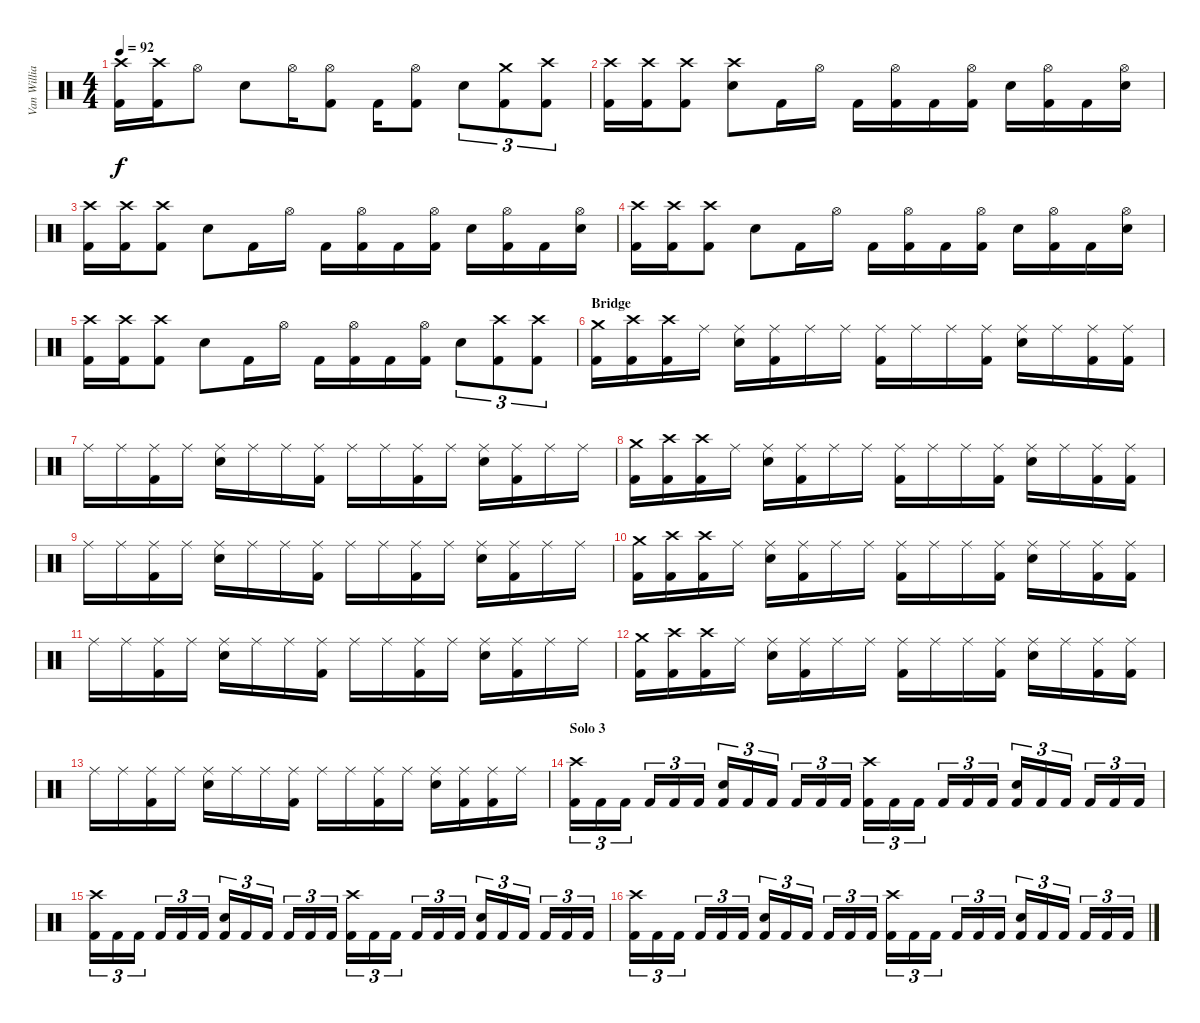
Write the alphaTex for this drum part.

\track ("Van Williams" "Van Willia") {instrument percussion}
\staff {score}
\articulation defaults
\ts (4 4)
\tempo 92
\clef neutral
\ks c
("Crash high (hit)" "Kick (hit) 2").16{dy f} ("Crash high (hit)" "Kick (hit) 2").16 "Hi-Hat (open)".8 "Electric Snare (hit)".8 "Hi-Hat (open)".16 ("Hi-Hat (open)" "Kick (hit) 2").8 "Kick (hit) 2".16 ("Hi-Hat (open)" "Kick (hit) 2").8 "Electric Snare (hit)".8{tu (3 2)} ("Crash medium (hit)" "Kick (hit) 2").8{tu (3 2)} ("Crash high (hit)" "Kick (hit) 2").8{tu (3 2)} |
("Crash high (hit)" "Kick (hit) 2").16 ("Crash high (hit)" "Kick (hit) 2").16 ("Crash high (hit)" "Kick (hit) 2").8 ("Crash high (hit)" "Electric Snare (hit)").8 "Kick (hit) 2".16 "Hi-Hat (open)".16 "Kick (hit) 2".16 ("Hi-Hat (open)" "Kick (hit) 2").16 "Kick (hit) 2".16 ("Hi-Hat (open)" "Kick (hit) 2").16 "Electric Snare (hit)".16 ("Hi-Hat (open)" "Kick (hit) 2").16 "Kick (hit) 2".16 ("Hi-Hat (open)" "Electric Snare (hit)").16 |
("Crash high (hit)" "Kick (hit) 2").16 ("Crash high (hit)" "Kick (hit) 2").16 ("Crash high (hit)" "Kick (hit) 2").8 "Electric Snare (hit)".8 "Kick (hit) 2".16 "Hi-Hat (open)".16 "Kick (hit) 2".16 ("Hi-Hat (open)" "Kick (hit) 2").16 "Kick (hit) 2".16 ("Hi-Hat (open)" "Kick (hit) 2").16 "Electric Snare (hit)".16 ("Hi-Hat (open)" "Kick (hit) 2").16 "Kick (hit) 2".16 ("Hi-Hat (open)" "Electric Snare (hit)").16 |
("Crash high (hit)" "Kick (hit) 2").16 ("Crash high (hit)" "Kick (hit) 2").16 ("Crash high (hit)" "Kick (hit) 2").8 "Electric Snare (hit)".8 "Kick (hit) 2".16 "Hi-Hat (open)".16 "Kick (hit) 2".16 ("Hi-Hat (open)" "Kick (hit) 2").16 "Kick (hit) 2".16 ("Hi-Hat (open)" "Kick (hit) 2").16 "Electric Snare (hit)".16 ("Hi-Hat (open)" "Kick (hit) 2").16 "Kick (hit) 2".16 ("Hi-Hat (open)" "Electric Snare (hit)").16 |
("Crash high (hit)" "Kick (hit) 2").16 ("Crash high (hit)" "Kick (hit) 2").16 ("Crash high (hit)" "Kick (hit) 2").8 "Electric Snare (hit)".8 "Kick (hit) 2".16 "Hi-Hat (open)".16 "Kick (hit) 2".16 ("Hi-Hat (open)" "Kick (hit) 2").16 "Kick (hit) 2".16 ("Hi-Hat (open)" "Kick (hit) 2").16 "Electric Snare (hit)".8{tu (3 2)} ("Crash high (hit)" "Kick (hit) 2").8{tu (3 2)} ("Crash high (hit)" "Kick (hit) 2").8{tu (3 2)} |
\section ("" "Bridge")
("Crash medium (hit)" "Kick (hit) 2").16 ("Crash high (hit)" "Kick (hit) 2").16 ("Crash high (hit)" "Kick (hit) 2").16 "Ride (middle)".16 ("Ride (middle)" "Electric Snare (hit)").16 ("Ride (middle)" "Kick (hit) 2").16 "Ride (middle)".16 "Ride (middle)".16 ("Ride (middle)" "Kick (hit) 2").16 "Ride (middle)".16 "Ride (middle)".16 ("Ride (middle)" "Kick (hit) 2").16 ("Ride (middle)" "Electric Snare (hit)").16 "Ride (middle)".16 ("Ride (middle)" "Kick (hit) 2").16 ("Ride (middle)" "Kick (hit) 2").16 |
"Ride (middle)".16 "Ride (middle)".16 ("Ride (middle)" "Kick (hit) 2").16 "Ride (middle)".16 ("Ride (middle)" "Electric Snare (hit)").16 "Ride (middle)".16 "Ride (middle)".16 ("Ride (middle)" "Kick (hit) 2").16 "Ride (middle)".16 "Ride (middle)".16 ("Ride (middle)" "Kick (hit) 2").16 "Ride (middle)".16 ("Ride (middle)" "Electric Snare (hit)").16 ("Ride (middle)" "Kick (hit) 2").16 "Ride (middle)".16 "Ride (middle)".16 |
("Crash medium (hit)" "Kick (hit) 2").16 ("Crash high (hit)" "Kick (hit) 2").16 ("Crash high (hit)" "Kick (hit) 2").16 "Ride (middle)".16 ("Ride (middle)" "Electric Snare (hit)").16 ("Ride (middle)" "Kick (hit) 2").16 "Ride (middle)".16 "Ride (middle)".16 ("Ride (middle)" "Kick (hit) 2").16 "Ride (middle)".16 "Ride (middle)".16 ("Ride (middle)" "Kick (hit) 2").16 ("Ride (middle)" "Electric Snare (hit)").16 "Ride (middle)".16 ("Ride (middle)" "Kick (hit) 2").16 ("Ride (middle)" "Kick (hit) 2").16 |
"Ride (middle)".16 "Ride (middle)".16 ("Ride (middle)" "Kick (hit) 2").16 "Ride (middle)".16 ("Ride (middle)" "Electric Snare (hit)").16 "Ride (middle)".16 "Ride (middle)".16 ("Ride (middle)" "Kick (hit) 2").16 "Ride (middle)".16 "Ride (middle)".16 ("Ride (middle)" "Kick (hit) 2").16 "Ride (middle)".16 ("Ride (middle)" "Electric Snare (hit)").16 ("Ride (middle)" "Kick (hit) 2").16 "Ride (middle)".16 "Ride (middle)".16 |
("Crash medium (hit)" "Kick (hit) 2").16 ("Crash high (hit)" "Kick (hit) 2").16 ("Crash high (hit)" "Kick (hit) 2").16 "Ride (middle)".16 ("Ride (middle)" "Electric Snare (hit)").16 ("Ride (middle)" "Kick (hit) 2").16 "Ride (middle)".16 "Ride (middle)".16 ("Ride (middle)" "Kick (hit) 2").16 "Ride (middle)".16 "Ride (middle)".16 ("Ride (middle)" "Kick (hit) 2").16 ("Ride (middle)" "Electric Snare (hit)").16 "Ride (middle)".16 ("Ride (middle)" "Kick (hit) 2").16 ("Ride (middle)" "Kick (hit) 2").16 |
"Ride (middle)".16 "Ride (middle)".16 ("Ride (middle)" "Kick (hit) 2").16 "Ride (middle)".16 ("Ride (middle)" "Electric Snare (hit)").16 "Ride (middle)".16 "Ride (middle)".16 ("Ride (middle)" "Kick (hit) 2").16 "Ride (middle)".16 "Ride (middle)".16 ("Ride (middle)" "Kick (hit) 2").16 "Ride (middle)".16 ("Ride (middle)" "Electric Snare (hit)").16 ("Ride (middle)" "Kick (hit) 2").16 "Ride (middle)".16 "Ride (middle)".16 |
("Crash medium (hit)" "Kick (hit) 2").16 ("Crash high (hit)" "Kick (hit) 2").16 ("Crash high (hit)" "Kick (hit) 2").16 "Ride (middle)".16 ("Ride (middle)" "Electric Snare (hit)").16 ("Ride (middle)" "Kick (hit) 2").16 "Ride (middle)".16 "Ride (middle)".16 ("Ride (middle)" "Kick (hit) 2").16 "Ride (middle)".16 "Ride (middle)".16 ("Ride (middle)" "Kick (hit) 2").16 ("Ride (middle)" "Electric Snare (hit)").16 "Ride (middle)".16 ("Ride (middle)" "Kick (hit) 2").16 ("Ride (middle)" "Kick (hit) 2").16 |
"Ride (middle)".16 "Ride (middle)".16 ("Ride (middle)" "Kick (hit) 2").16 "Ride (middle)".16 ("Ride (middle)" "Electric Snare (hit)").16 "Ride (middle)".16 "Ride (middle)".16 ("Ride (middle)" "Kick (hit) 2").16 "Ride (middle)".16 "Ride (middle)".16 ("Ride (middle)" "Kick (hit) 2").16 "Ride (middle)".16 ("Ride (middle)" "Electric Snare (hit)").16 ("Ride (middle)" "Kick (hit) 2").16 ("Ride (middle)" "Kick (hit) 2").16 "Ride (middle)".16 |
\section ("" "Solo 3")
("Crash high (hit)" "Kick (hit) 2").16{tu (3 2)} "Kick (hit) 2".16{tu (3 2)} "Kick (hit) 2".16{tu (3 2)} "Kick (hit) 2".16{tu (3 2)} "Kick (hit) 2".16{tu (3 2)} "Kick (hit) 2".16{tu (3 2)} ("Electric Snare (hit)" "Kick (hit) 2").16{tu (3 2)} "Kick (hit) 2".16{tu (3 2)} "Kick (hit) 2".16{tu (3 2)} "Kick (hit) 2".16{tu (3 2)} "Kick (hit) 2".16{tu (3 2)} "Kick (hit) 2".16{tu (3 2)} ("Crash high (hit)" "Kick (hit) 2").16{tu (3 2)} "Kick (hit) 2".16{tu (3 2)} "Kick (hit) 2".16{tu (3 2)} "Kick (hit) 2".16{tu (3 2)} "Kick (hit) 2".16{tu (3 2)} "Kick (hit) 2".16{tu (3 2)} ("Electric Snare (hit)" "Kick (hit) 2").16{tu (3 2)} "Kick (hit) 2".16{tu (3 2)} "Kick (hit) 2".16{tu (3 2)} "Kick (hit) 2".16{tu (3 2)} "Kick (hit) 2".16{tu (3 2)} "Kick (hit) 2".16{tu (3 2)} |
("Crash high (hit)" "Kick (hit) 2").16{tu (3 2)} "Kick (hit) 2".16{tu (3 2)} "Kick (hit) 2".16{tu (3 2)} "Kick (hit) 2".16{tu (3 2)} "Kick (hit) 2".16{tu (3 2)} "Kick (hit) 2".16{tu (3 2)} ("Electric Snare (hit)" "Kick (hit) 2").16{tu (3 2)} "Kick (hit) 2".16{tu (3 2)} "Kick (hit) 2".16{tu (3 2)} "Kick (hit) 2".16{tu (3 2)} "Kick (hit) 2".16{tu (3 2)} "Kick (hit) 2".16{tu (3 2)} ("Crash high (hit)" "Kick (hit) 2").16{tu (3 2)} "Kick (hit) 2".16{tu (3 2)} "Kick (hit) 2".16{tu (3 2)} "Kick (hit) 2".16{tu (3 2)} "Kick (hit) 2".16{tu (3 2)} "Kick (hit) 2".16{tu (3 2)} ("Electric Snare (hit)" "Kick (hit) 2").16{tu (3 2)} "Kick (hit) 2".16{tu (3 2)} "Kick (hit) 2".16{tu (3 2)} "Kick (hit) 2".16{tu (3 2)} "Kick (hit) 2".16{tu (3 2)} "Kick (hit) 2".16{tu (3 2)} |
("Crash high (hit)" "Kick (hit) 2").16{tu (3 2)} "Kick (hit) 2".16{tu (3 2)} "Kick (hit) 2".16{tu (3 2)} "Kick (hit) 2".16{tu (3 2)} "Kick (hit) 2".16{tu (3 2)} "Kick (hit) 2".16{tu (3 2)} ("Electric Snare (hit)" "Kick (hit) 2").16{tu (3 2)} "Kick (hit) 2".16{tu (3 2)} "Kick (hit) 2".16{tu (3 2)} "Kick (hit) 2".16{tu (3 2)} "Kick (hit) 2".16{tu (3 2)} "Kick (hit) 2".16{tu (3 2)} ("Crash high (hit)" "Kick (hit) 2").16{tu (3 2)} "Kick (hit) 2".16{tu (3 2)} "Kick (hit) 2".16{tu (3 2)} "Kick (hit) 2".16{tu (3 2)} "Kick (hit) 2".16{tu (3 2)} "Kick (hit) 2".16{tu (3 2)} ("Electric Snare (hit)" "Kick (hit) 2").16{tu (3 2)} "Kick (hit) 2".16{tu (3 2)} "Kick (hit) 2".16{tu (3 2)} "Kick (hit) 2".16{tu (3 2)} "Kick (hit) 2".16{tu (3 2)} "Kick (hit) 2".16{tu (3 2)}
